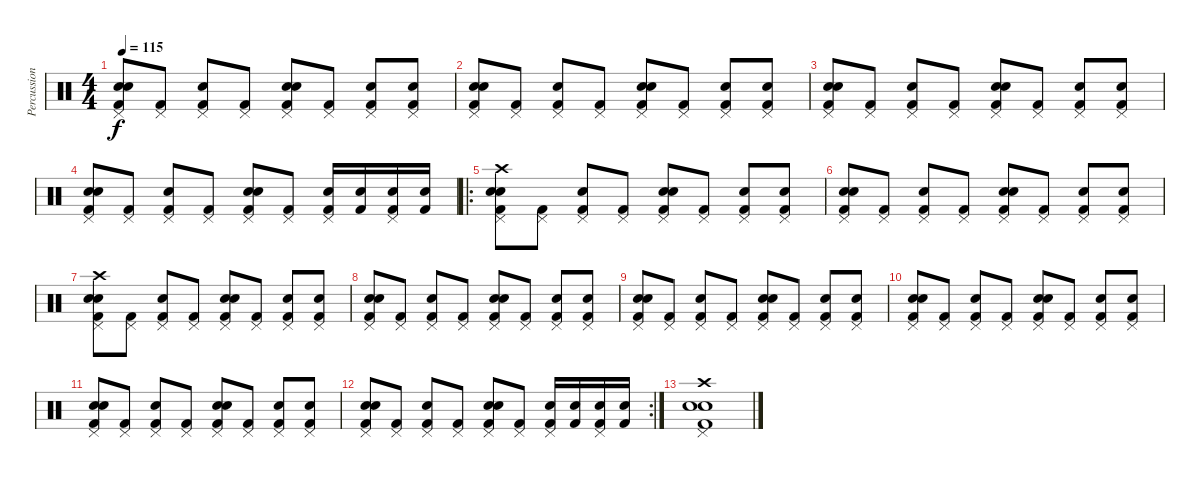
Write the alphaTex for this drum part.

\track ("Percussions" "Percussion") {instrument percussion}
\staff {score}
\articulation defaults
\ts (4 4)
\tempo 115
\clef neutral
\ks c
("Hand Clap (hit)" "Pedal Hi-Hat (hit)" "Snare (hit) 2" "Kick (hit) 2").8{dy f} ("Pedal Hi-Hat (hit)" "Kick (hit) 2").8 ("Pedal Hi-Hat (hit)" "Snare (hit) 2" "Kick (hit) 2").8 ("Pedal Hi-Hat (hit)" "Kick (hit) 2").8 ("Hand Clap (hit)" "Pedal Hi-Hat (hit)" "Snare (hit) 2" "Kick (hit) 2").8 ("Pedal Hi-Hat (hit)" "Kick (hit) 2").8 ("Pedal Hi-Hat (hit)" "Snare (hit) 2" "Kick (hit) 2").8 ("Pedal Hi-Hat (hit)" "Snare (hit) 2" "Kick (hit) 2").8 |
("Hand Clap (hit)" "Pedal Hi-Hat (hit)" "Snare (hit) 2" "Kick (hit) 2").8 ("Pedal Hi-Hat (hit)" "Kick (hit) 2").8 ("Pedal Hi-Hat (hit)" "Snare (hit) 2" "Kick (hit) 2").8 ("Pedal Hi-Hat (hit)" "Kick (hit) 2").8 ("Hand Clap (hit)" "Pedal Hi-Hat (hit)" "Snare (hit) 2" "Kick (hit) 2").8 ("Pedal Hi-Hat (hit)" "Kick (hit) 2").8 ("Pedal Hi-Hat (hit)" "Snare (hit) 2" "Kick (hit) 2").8 ("Pedal Hi-Hat (hit)" "Snare (hit) 2" "Kick (hit) 2").8 |
("Hand Clap (hit)" "Pedal Hi-Hat (hit)" "Snare (hit) 2" "Kick (hit) 2").8 ("Pedal Hi-Hat (hit)" "Kick (hit) 2").8 ("Pedal Hi-Hat (hit)" "Snare (hit) 2" "Kick (hit) 2").8 ("Pedal Hi-Hat (hit)" "Kick (hit) 2").8 ("Hand Clap (hit)" "Pedal Hi-Hat (hit)" "Snare (hit) 2" "Kick (hit) 2").8 ("Pedal Hi-Hat (hit)" "Kick (hit) 2").8 ("Pedal Hi-Hat (hit)" "Snare (hit) 2" "Kick (hit) 2").8 ("Pedal Hi-Hat (hit)" "Snare (hit) 2" "Kick (hit) 2").8 |
("Hand Clap (hit)" "Pedal Hi-Hat (hit)" "Snare (hit) 2" "Kick (hit) 2").8 ("Pedal Hi-Hat (hit)" "Kick (hit) 2").8 ("Pedal Hi-Hat (hit)" "Snare (hit) 2" "Kick (hit) 2").8 ("Pedal Hi-Hat (hit)" "Kick (hit) 2").8 ("Hand Clap (hit)" "Pedal Hi-Hat (hit)" "Snare (hit) 2" "Kick (hit) 2").8 ("Pedal Hi-Hat (hit)" "Kick (hit) 2").8 ("Pedal Hi-Hat (hit)" "Snare (hit) 2" "Kick (hit) 2").16 ("Snare (hit) 2" "Kick (hit) 2").16 ("Pedal Hi-Hat (hit)" "Snare (hit) 2" "Kick (hit) 2").16 ("Snare (hit) 2" "Kick (hit) 2").16 |
\ro
("Crash high (hit)" "Hand Clap (hit)" "Pedal Hi-Hat (hit)" "Snare (hit) 2" "Kick (hit) 2").8 ("Pedal Hi-Hat (hit)" "Kick (hit) 2").8 ("Pedal Hi-Hat (hit)" "Snare (hit) 2" "Kick (hit) 2").8 ("Pedal Hi-Hat (hit)" "Kick (hit) 2").8 ("Hand Clap (hit)" "Pedal Hi-Hat (hit)" "Snare (hit) 2" "Kick (hit) 2").8 ("Pedal Hi-Hat (hit)" "Kick (hit) 2").8 ("Pedal Hi-Hat (hit)" "Snare (hit) 2" "Kick (hit) 2").8 ("Pedal Hi-Hat (hit)" "Snare (hit) 2" "Kick (hit) 2").8 |
("Hand Clap (hit)" "Pedal Hi-Hat (hit)" "Snare (hit) 2" "Kick (hit) 2").8 ("Pedal Hi-Hat (hit)" "Kick (hit) 2").8 ("Pedal Hi-Hat (hit)" "Snare (hit) 2" "Kick (hit) 2").8 ("Pedal Hi-Hat (hit)" "Kick (hit) 2").8 ("Hand Clap (hit)" "Pedal Hi-Hat (hit)" "Snare (hit) 2" "Kick (hit) 2").8 ("Pedal Hi-Hat (hit)" "Kick (hit) 2").8 ("Pedal Hi-Hat (hit)" "Snare (hit) 2" "Kick (hit) 2").8 ("Pedal Hi-Hat (hit)" "Snare (hit) 2" "Kick (hit) 2").8 |
("Crash high (hit)" "Hand Clap (hit)" "Pedal Hi-Hat (hit)" "Snare (hit) 2" "Kick (hit) 2").8 ("Pedal Hi-Hat (hit)" "Kick (hit) 2").8 ("Pedal Hi-Hat (hit)" "Snare (hit) 2" "Kick (hit) 2").8 ("Pedal Hi-Hat (hit)" "Kick (hit) 2").8 ("Hand Clap (hit)" "Pedal Hi-Hat (hit)" "Snare (hit) 2" "Kick (hit) 2").8 ("Pedal Hi-Hat (hit)" "Kick (hit) 2").8 ("Pedal Hi-Hat (hit)" "Snare (hit) 2" "Kick (hit) 2").8 ("Pedal Hi-Hat (hit)" "Snare (hit) 2" "Kick (hit) 2").8 |
("Hand Clap (hit)" "Pedal Hi-Hat (hit)" "Snare (hit) 2" "Kick (hit) 2").8 ("Pedal Hi-Hat (hit)" "Kick (hit) 2").8 ("Pedal Hi-Hat (hit)" "Snare (hit) 2" "Kick (hit) 2").8 ("Pedal Hi-Hat (hit)" "Kick (hit) 2").8 ("Hand Clap (hit)" "Pedal Hi-Hat (hit)" "Snare (hit) 2" "Kick (hit) 2").8 ("Pedal Hi-Hat (hit)" "Kick (hit) 2").8 ("Pedal Hi-Hat (hit)" "Snare (hit) 2" "Kick (hit) 2").8 ("Pedal Hi-Hat (hit)" "Snare (hit) 2" "Kick (hit) 2").8 |
("Hand Clap (hit)" "Pedal Hi-Hat (hit)" "Snare (hit) 2" "Kick (hit) 2").8 ("Pedal Hi-Hat (hit)" "Kick (hit) 2").8 ("Pedal Hi-Hat (hit)" "Snare (hit) 2" "Kick (hit) 2").8 ("Pedal Hi-Hat (hit)" "Kick (hit) 2").8 ("Hand Clap (hit)" "Pedal Hi-Hat (hit)" "Snare (hit) 2" "Kick (hit) 2").8 ("Pedal Hi-Hat (hit)" "Kick (hit) 2").8 ("Pedal Hi-Hat (hit)" "Snare (hit) 2" "Kick (hit) 2").8 ("Pedal Hi-Hat (hit)" "Snare (hit) 2" "Kick (hit) 2").8 |
("Hand Clap (hit)" "Pedal Hi-Hat (hit)" "Snare (hit) 2" "Kick (hit) 2").8 ("Pedal Hi-Hat (hit)" "Kick (hit) 2").8 ("Pedal Hi-Hat (hit)" "Snare (hit) 2" "Kick (hit) 2").8 ("Pedal Hi-Hat (hit)" "Kick (hit) 2").8 ("Hand Clap (hit)" "Pedal Hi-Hat (hit)" "Snare (hit) 2" "Kick (hit) 2").8 ("Pedal Hi-Hat (hit)" "Kick (hit) 2").8 ("Pedal Hi-Hat (hit)" "Snare (hit) 2" "Kick (hit) 2").8 ("Pedal Hi-Hat (hit)" "Snare (hit) 2" "Kick (hit) 2").8 |
("Hand Clap (hit)" "Pedal Hi-Hat (hit)" "Snare (hit) 2" "Kick (hit) 2").8 ("Pedal Hi-Hat (hit)" "Kick (hit) 2").8 ("Pedal Hi-Hat (hit)" "Snare (hit) 2" "Kick (hit) 2").8 ("Pedal Hi-Hat (hit)" "Kick (hit) 2").8 ("Hand Clap (hit)" "Pedal Hi-Hat (hit)" "Snare (hit) 2" "Kick (hit) 2").8 ("Pedal Hi-Hat (hit)" "Kick (hit) 2").8 ("Pedal Hi-Hat (hit)" "Snare (hit) 2" "Kick (hit) 2").8 ("Pedal Hi-Hat (hit)" "Snare (hit) 2" "Kick (hit) 2").8 |
\rc 2
("Hand Clap (hit)" "Pedal Hi-Hat (hit)" "Snare (hit) 2" "Kick (hit) 2").8 ("Pedal Hi-Hat (hit)" "Kick (hit) 2").8 ("Pedal Hi-Hat (hit)" "Snare (hit) 2" "Kick (hit) 2").8 ("Pedal Hi-Hat (hit)" "Kick (hit) 2").8 ("Hand Clap (hit)" "Pedal Hi-Hat (hit)" "Snare (hit) 2" "Kick (hit) 2").8 ("Pedal Hi-Hat (hit)" "Kick (hit) 2").8 ("Pedal Hi-Hat (hit)" "Snare (hit) 2" "Kick (hit) 2").16 ("Snare (hit) 2" "Kick (hit) 2").16 ("Pedal Hi-Hat (hit)" "Snare (hit) 2" "Kick (hit) 2").16 ("Snare (hit) 2" "Kick (hit) 2").16 |
("Crash high (hit)" "Hand Clap (hit)" "Pedal Hi-Hat (hit)" "Snare (hit) 2" "Kick (hit) 2").1
